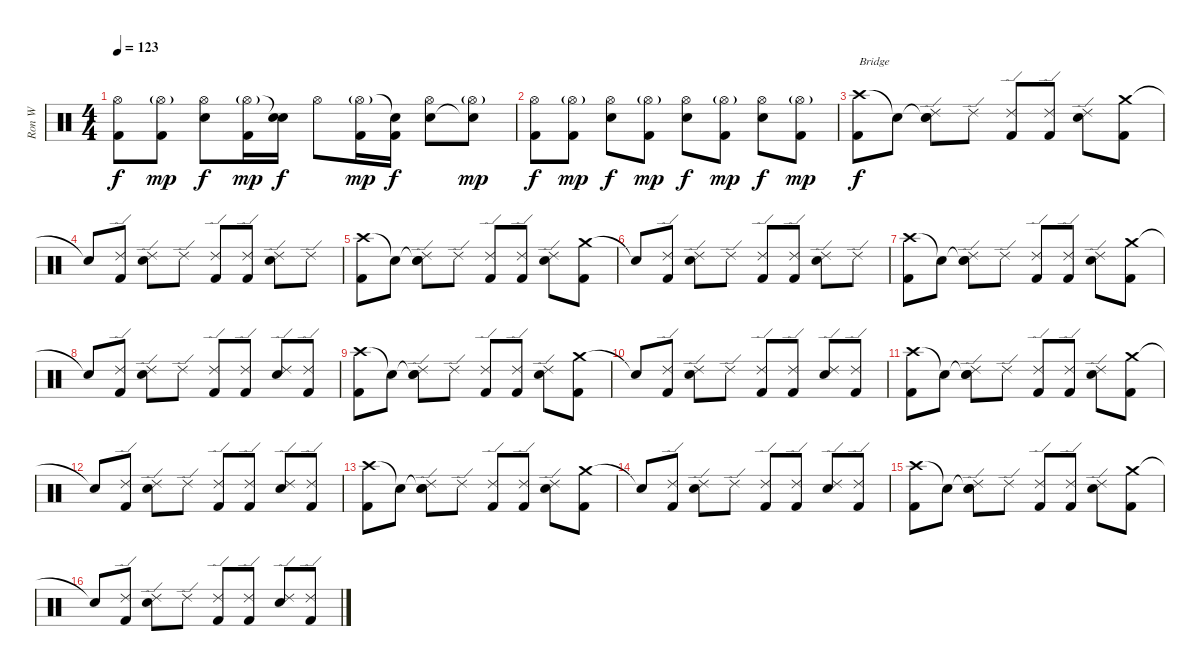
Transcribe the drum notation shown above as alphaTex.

\track ("Ron W" "Ron W") {instrument percussion}
\staff {score}
\articulation defaults
\ts (4 4)
\tempo 123
\clef neutral
\ks c
("Hi-Hat (open)" "Kick (hit) 2").8{dy f} ("Hi-Hat (open)"{g} "Kick (hit) 2").8{dy mp} ("Hi-Hat (open)" "Electric Snare (hit)").8{dy f} ("Hi-Hat (open)"{g} "Kick (hit) 2").16{dy mp} ("Snare (hit)"{t} "Electric Snare (hit)").16{dy f} "Hi-Hat (open)".8 ("Hi-Hat (open)"{g} "Kick (hit) 2").16{dy mp} ("Snare (hit)"{t} "Kick (hit) 2").16{dy f} ("Hi-Hat (open)" "Electric Snare (hit)").8 ("Hi-Hat (open)"{g} "Snare (hit)"{t}).8{dy mp} |
("Hi-Hat (open)" "Kick (hit) 2").8{dy f} ("Hi-Hat (open)"{g} "Kick (hit) 2").8{dy mp} ("Hi-Hat (open)" "Electric Snare (hit)").8{dy f} ("Hi-Hat (open)"{g} "Kick (hit) 2").8{dy mp} ("Hi-Hat (open)" "Electric Snare (hit)").8{dy f} ("Hi-Hat (open)"{g} "Kick (hit) 2").8{dy mp} ("Hi-Hat (open)" "Electric Snare (hit)").8{dy f} ("Hi-Hat (open)"{g} "Kick (hit) 2").8{dy mp} |
("Crash high (hit)" "Kick (hit) 2").8{txt "Bridge" dy f} "Snare (hit)"{t}.8 ("Snare (hit)"{t} "Ride (edge) 2" "Electric Snare (hit)").8 "Ride (edge) 2".8 ("Ride (edge) 2" "Kick (hit) 2").8 ("Ride (edge) 2" "Kick (hit) 2").8 ("Ride (edge) 2" "Electric Snare (hit)").8 ("Crash medium (hit)" "Kick (hit) 2").8 |
"Snare (hit)"{t}.8 ("Ride (edge) 2" "Kick (hit) 2").8 ("Ride (edge) 2" "Electric Snare (hit)").8 "Ride (edge) 2".8 ("Ride (edge) 2" "Kick (hit) 2").8 ("Ride (edge) 2" "Kick (hit) 2").8 ("Ride (edge) 2" "Electric Snare (hit)").8 "Ride (edge) 2".8 |
("Crash high (hit)" "Kick (hit) 2").8 "Snare (hit)"{t}.8 ("Snare (hit)"{t} "Ride (edge) 2" "Electric Snare (hit)").8 "Ride (edge) 2".8 ("Ride (edge) 2" "Kick (hit) 2").8 ("Ride (edge) 2" "Kick (hit) 2").8 ("Ride (edge) 2" "Electric Snare (hit)").8 ("Crash medium (hit)" "Kick (hit) 2").8 |
"Snare (hit)"{t}.8 ("Ride (edge) 2" "Kick (hit) 2").8 ("Ride (edge) 2" "Electric Snare (hit)").8 "Ride (edge) 2".8 ("Ride (edge) 2" "Kick (hit) 2").8 ("Ride (edge) 2" "Kick (hit) 2").8 ("Ride (edge) 2" "Electric Snare (hit)").8 "Ride (edge) 2".8 |
("Crash high (hit)" "Kick (hit) 2").8 "Snare (hit)"{t}.8 ("Snare (hit)"{t} "Ride (edge) 2" "Electric Snare (hit)").8 "Ride (edge) 2".8 ("Ride (edge) 2" "Kick (hit) 2").8 ("Ride (edge) 2" "Kick (hit) 2").8 ("Ride (edge) 2" "Electric Snare (hit)").8 ("Crash medium (hit)" "Kick (hit) 2").8 |
"Snare (hit)"{t}.8 ("Ride (edge) 2" "Kick (hit) 2").8 ("Ride (edge) 2" "Electric Snare (hit)").8 "Ride (edge) 2".8 ("Ride (edge) 2" "Kick (hit) 2").8 ("Ride (edge) 2" "Kick (hit) 2").8 ("Ride (edge) 2" "Electric Snare (hit)").8 ("Ride (edge) 2" "Kick (hit) 2").8 |
("Crash high (hit)" "Kick (hit) 2").8 "Snare (hit)"{t}.8 ("Snare (hit)"{t} "Ride (edge) 2" "Electric Snare (hit)").8 "Ride (edge) 2".8 ("Ride (edge) 2" "Kick (hit) 2").8 ("Ride (edge) 2" "Kick (hit) 2").8 ("Ride (edge) 2" "Electric Snare (hit)").8 ("Crash medium (hit)" "Kick (hit) 2").8 |
"Snare (hit)"{t}.8 ("Ride (edge) 2" "Kick (hit) 2").8 ("Ride (edge) 2" "Electric Snare (hit)").8 "Ride (edge) 2".8 ("Ride (edge) 2" "Kick (hit) 2").8 ("Ride (edge) 2" "Kick (hit) 2").8 ("Ride (edge) 2" "Electric Snare (hit)").8 ("Ride (edge) 2" "Kick (hit) 2").8 |
("Crash high (hit)" "Kick (hit) 2").8 "Snare (hit)"{t}.8 ("Snare (hit)"{t} "Ride (edge) 2" "Electric Snare (hit)").8 "Ride (edge) 2".8 ("Ride (edge) 2" "Kick (hit) 2").8 ("Ride (edge) 2" "Kick (hit) 2").8 ("Ride (edge) 2" "Electric Snare (hit)").8 ("Crash medium (hit)" "Kick (hit) 2").8 |
"Snare (hit)"{t}.8 ("Ride (edge) 2" "Kick (hit) 2").8 ("Ride (edge) 2" "Electric Snare (hit)").8 "Ride (edge) 2".8 ("Ride (edge) 2" "Kick (hit) 2").8 ("Ride (edge) 2" "Kick (hit) 2").8 ("Ride (edge) 2" "Electric Snare (hit)").8 ("Ride (edge) 2" "Kick (hit) 2").8 |
("Crash high (hit)" "Kick (hit) 2").8 "Snare (hit)"{t}.8 ("Snare (hit)"{t} "Ride (edge) 2" "Electric Snare (hit)").8 "Ride (edge) 2".8 ("Ride (edge) 2" "Kick (hit) 2").8 ("Ride (edge) 2" "Kick (hit) 2").8 ("Ride (edge) 2" "Electric Snare (hit)").8 ("Crash medium (hit)" "Kick (hit) 2").8 |
"Snare (hit)"{t}.8 ("Ride (edge) 2" "Kick (hit) 2").8 ("Ride (edge) 2" "Electric Snare (hit)").8 "Ride (edge) 2".8 ("Ride (edge) 2" "Kick (hit) 2").8 ("Ride (edge) 2" "Kick (hit) 2").8 ("Ride (edge) 2" "Electric Snare (hit)").8 ("Ride (edge) 2" "Kick (hit) 2").8 |
("Crash high (hit)" "Kick (hit) 2").8 "Snare (hit)"{t}.8 ("Snare (hit)"{t} "Ride (edge) 2" "Electric Snare (hit)").8 "Ride (edge) 2".8 ("Ride (edge) 2" "Kick (hit) 2").8 ("Ride (edge) 2" "Kick (hit) 2").8 ("Ride (edge) 2" "Electric Snare (hit)").8 ("Crash medium (hit)" "Kick (hit) 2").8 |
"Snare (hit)"{t}.8 ("Ride (edge) 2" "Kick (hit) 2").8 ("Ride (edge) 2" "Electric Snare (hit)").8 "Ride (edge) 2".8 ("Ride (edge) 2" "Kick (hit) 2").8 ("Ride (edge) 2" "Kick (hit) 2").8 ("Ride (edge) 2" "Electric Snare (hit)").8 ("Ride (edge) 2" "Kick (hit) 2").8
